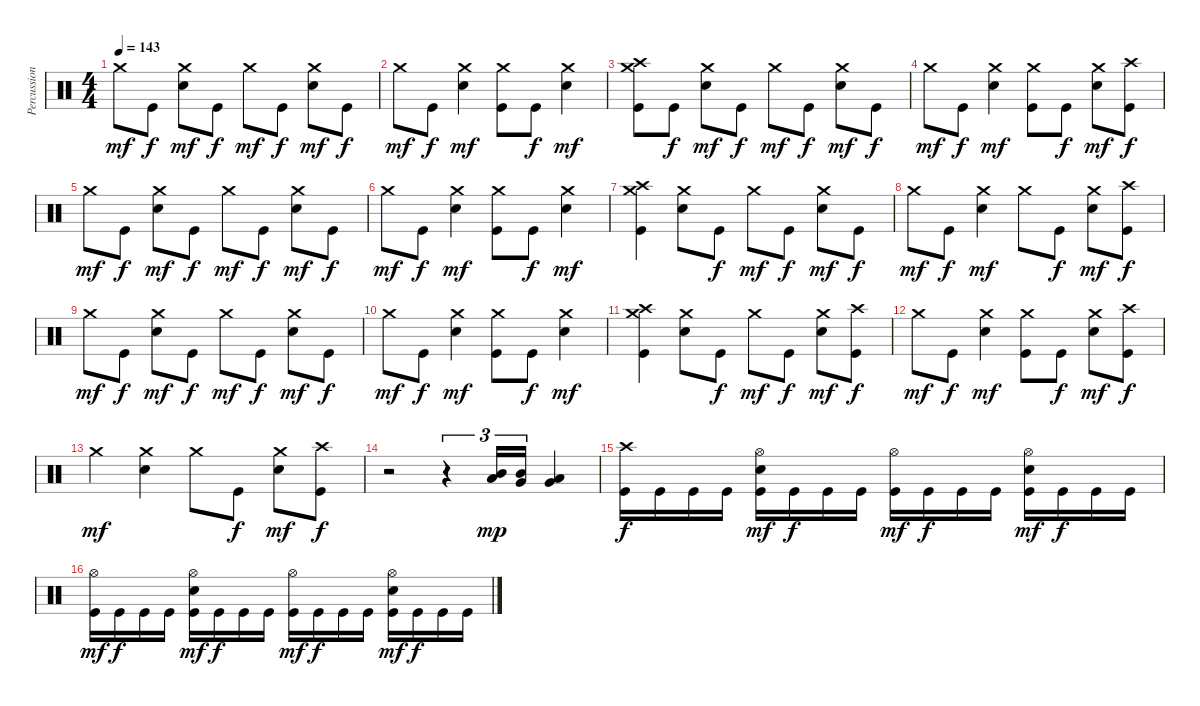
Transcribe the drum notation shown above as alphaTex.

\track ("Percussions" "Percussion") {instrument percussion}
\staff {score}
\articulation defaults
\ts (4 4)
\tempo 143
\clef neutral
\ks c "Crash medium (hit)".8{dy mf} "Kick (hit)".8{dy f}
("Electric Snare (hit)" "Crash medium (hit)").8{dy mf} "Kick (hit)".8{dy f} "Crash medium (hit)".8{dy mf} "Kick (hit)".8{dy f} ("Electric Snare (hit)" "Crash medium (hit)").8{dy mf} "Kick (hit)".8{dy f} |
"Crash medium (hit)".8{dy mf} "Kick (hit)".8{dy f} ("Electric Snare (hit)" "Crash medium (hit)").4{dy mf} ("Kick (hit)" "Crash medium (hit)").8 "Kick (hit)".8{dy f} ("Electric Snare (hit)" "Crash medium (hit)").4{dy mf} |
("Kick (hit)" "Crash medium (hit)" "Crash high (hit)").8 "Kick (hit)".8{dy f} ("Electric Snare (hit)" "Crash medium (hit)").8{dy mf} "Kick (hit)".8{dy f} "Crash medium (hit)".8{dy mf} "Kick (hit)".8{dy f} ("Electric Snare (hit)" "Crash medium (hit)").8{dy mf} "Kick (hit)".8{dy f} |
"Crash medium (hit)".8{dy mf} "Kick (hit)".8{dy f} ("Electric Snare (hit)" "Crash medium (hit)").4{dy mf} ("Kick (hit)" "Crash medium (hit)").8 "Kick (hit)".8{dy f} ("Electric Snare (hit)" "Crash medium (hit)").8{dy mf} ("Kick (hit)" "Crash high (hit)").8{dy f} |
"Crash medium (hit)".8{dy mf} "Kick (hit)".8{dy f} ("Electric Snare (hit)" "Crash medium (hit)").8{dy mf} "Kick (hit)".8{dy f} "Crash medium (hit)".8{dy mf} "Kick (hit)".8{dy f} ("Electric Snare (hit)" "Crash medium (hit)").8{dy mf} "Kick (hit)".8{dy f} |
"Crash medium (hit)".8{dy mf} "Kick (hit)".8{dy f} ("Electric Snare (hit)" "Crash medium (hit)").4{dy mf} ("Kick (hit)" "Crash medium (hit)").8 "Kick (hit)".8{dy f} ("Electric Snare (hit)" "Crash medium (hit)").4{dy mf} |
("Kick (hit)" "Crash medium (hit)" "Crash high (hit)").4 ("Electric Snare (hit)" "Crash medium (hit)").8 "Kick (hit)".8{dy f} "Crash medium (hit)".8{dy mf} "Kick (hit)".8{dy f} ("Electric Snare (hit)" "Crash medium (hit)").8{dy mf} "Kick (hit)".8{dy f} |
"Crash medium (hit)".8{dy mf} "Kick (hit)".8{dy f} ("Electric Snare (hit)" "Crash medium (hit)").4{dy mf} "Crash medium (hit)".8 "Kick (hit)".8{dy f} ("Electric Snare (hit)" "Crash medium (hit)").8{dy mf} ("Kick (hit)" "Crash high (hit)").8{dy f} |
"Crash medium (hit)".8{dy mf} "Kick (hit)".8{dy f} ("Electric Snare (hit)" "Crash medium (hit)").8{dy mf} "Kick (hit)".8{dy f} "Crash medium (hit)".8{dy mf} "Kick (hit)".8{dy f} ("Electric Snare (hit)" "Crash medium (hit)").8{dy mf} "Kick (hit)".8{dy f} |
"Crash medium (hit)".8{dy mf} "Kick (hit)".8{dy f} ("Electric Snare (hit)" "Crash medium (hit)").4{dy mf} ("Kick (hit)" "Crash medium (hit)").8 "Kick (hit)".8{dy f} ("Electric Snare (hit)" "Crash medium (hit)").4{dy mf} |
("Kick (hit)" "Crash medium (hit)" "Crash high (hit)").4 ("Electric Snare (hit)" "Crash medium (hit)").8 "Kick (hit)".8{dy f} "Crash medium (hit)".8{dy mf} "Kick (hit)".8{dy f} ("Electric Snare (hit)" "Crash medium (hit)").8{dy mf} ("Kick (hit)" "Crash high (hit)").8{dy f} |
"Crash medium (hit)".8{dy mf} "Kick (hit)".8{dy f} ("Electric Snare (hit)" "Crash medium (hit)").4{dy mf} ("Kick (hit)" "Crash medium (hit)").8 "Kick (hit)".8{dy f} ("Electric Snare (hit)" "Crash medium (hit)").8{dy mf} ("Kick (hit)" "Crash high (hit)").8{dy f} |
"Crash medium (hit)".4{dy mf} ("Electric Snare (hit)" "Crash medium (hit)").4 "Crash medium (hit)".8 "Kick (hit)".8{dy f} ("Electric Snare (hit)" "Crash medium (hit)").8{dy mf} ("Kick (hit)" "Crash high (hit)").8{dy f} |
r.2 r.4{tu (3 2)} ("Low Tom (hit)" "Mid Tom (hit)").16{tu (3 2) dy mp} ("Very Low Tom (hit)" "Mid Tom (hit)").16{tu (3 2)} ("Low Floor Tom (hit)" "Very Low Tom (hit)").4 |
("Kick (hit)" "Crash high (hit)").16{dy f} "Kick (hit)".16 "Kick (hit)".16 "Kick (hit)".16 ("Kick (hit)" "Electric Snare (hit)" "Hi-Hat (open)").16{dy mf} "Kick (hit)".16{dy f} "Kick (hit)".16 "Kick (hit)".16 ("Kick (hit)" "Hi-Hat (open)").16{dy mf} "Kick (hit)".16{dy f} "Kick (hit)".16 "Kick (hit)".16 ("Kick (hit)" "Electric Snare (hit)" "Hi-Hat (open)").16{dy mf} "Kick (hit)".16{dy f} "Kick (hit)".16 "Kick (hit)".16 |
("Kick (hit)" "Hi-Hat (open)").16{dy mf} "Kick (hit)".16{dy f} "Kick (hit)".16 "Kick (hit)".16 ("Kick (hit)" "Electric Snare (hit)" "Hi-Hat (open)").16{dy mf} "Kick (hit)".16{dy f} "Kick (hit)".16 "Kick (hit)".16 ("Kick (hit)" "Hi-Hat (open)").16{dy mf} "Kick (hit)".16{dy f} "Kick (hit)".16 "Kick (hit)".16 ("Kick (hit)" "Electric Snare (hit)" "Hi-Hat (open)").16{dy mf} "Kick (hit)".16{dy f} "Kick (hit)".16 "Kick (hit)".16
